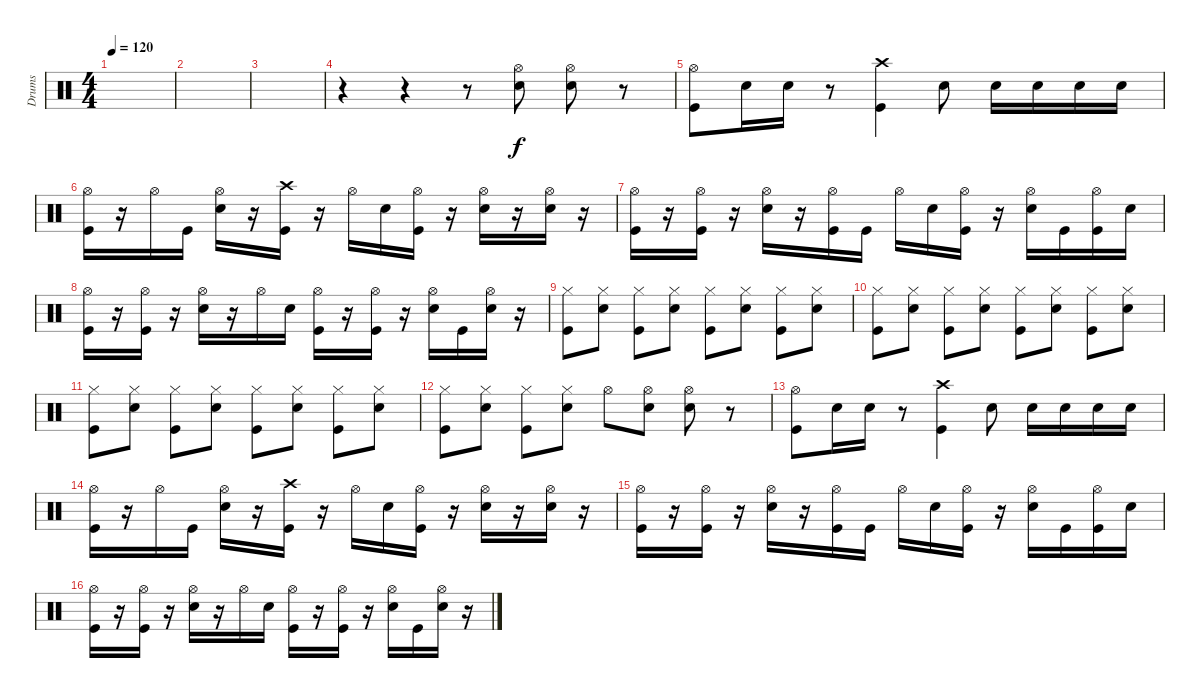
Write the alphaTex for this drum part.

\track ("Drums" "Drums") {instrument percussion}
\staff {score}
\articulation defaults
\ts (4 4)
\tempo 120
\clef neutral
\ks c
|
|
|
r.4 r.4 r.8 ("Hi-Hat (open)" "Electric Snare (hit)").8 ("Hi-Hat (open)" "Electric Snare (hit)").8 r.8 |
("Hi-Hat (open)" "Kick (hit)").8 "Electric Snare (hit)".16 "Electric Snare (hit)".16 r.8 ("Crash high (hit)" "Kick (hit)").4 "Electric Snare (hit)".8 "Electric Snare (hit)".16 "Electric Snare (hit)".16 "Electric Snare (hit)".16 "Electric Snare (hit)".16 |
("Hi-Hat (open)" "Kick (hit)").16 r.16 "Hi-Hat (open)".16 "Kick (hit)".16 ("Hi-Hat (open)" "Electric Snare (hit)").16 r.16 ("Crash high (hit)" "Kick (hit)").16 r.16 "Hi-Hat (open)".16 "Electric Snare (hit)".16 ("Hi-Hat (open)" "Kick (hit)").16 r.16 ("Hi-Hat (open)" "Electric Snare (hit)").16 r.16 ("Hi-Hat (open)" "Electric Snare (hit)").16 r.16 |
("Hi-Hat (open)" "Kick (hit)").16 r.16 ("Hi-Hat (open)" "Kick (hit)").16 r.16 ("Hi-Hat (open)" "Electric Snare (hit)").16 r.16 ("Hi-Hat (open)" "Kick (hit)").16 "Kick (hit)".16 "Hi-Hat (open)".16 "Electric Snare (hit)".16 ("Hi-Hat (open)" "Kick (hit)").16 r.16 ("Hi-Hat (open)" "Electric Snare (hit)").16 "Kick (hit)".16 ("Hi-Hat (open)" "Kick (hit)").16 "Electric Snare (hit)".16 |
("Hi-Hat (open)" "Kick (hit)").16 r.16 ("Hi-Hat (open)" "Kick (hit)").16 r.16 ("Hi-Hat (open)" "Electric Snare (hit)").16 r.16 "Hi-Hat (open)".16 "Electric Snare (hit)".16 ("Hi-Hat (open)" "Kick (hit)").16 r.16 ("Hi-Hat (open)" "Kick (hit)").16 r.16 ("Hi-Hat (open)" "Electric Snare (hit)").16 "Kick (hit)".16 ("Hi-Hat (open)" "Electric Snare (hit)").16 r.16 |
("Hi-Hat (closed)" "Kick (hit)").8 ("Hi-Hat (closed)" "Electric Snare (hit)").8 ("Hi-Hat (closed)" "Kick (hit)").8 ("Hi-Hat (closed)" "Electric Snare (hit)").8 ("Hi-Hat (closed)" "Kick (hit)").8 ("Hi-Hat (closed)" "Electric Snare (hit)").8 ("Hi-Hat (closed)" "Kick (hit)").8 ("Hi-Hat (closed)" "Electric Snare (hit)").8 |
("Hi-Hat (closed)" "Kick (hit)").8 ("Hi-Hat (closed)" "Electric Snare (hit)").8 ("Hi-Hat (closed)" "Kick (hit)").8 ("Hi-Hat (closed)" "Electric Snare (hit)").8 ("Hi-Hat (closed)" "Kick (hit)").8 ("Hi-Hat (closed)" "Electric Snare (hit)").8 ("Hi-Hat (closed)" "Kick (hit)").8 ("Hi-Hat (closed)" "Electric Snare (hit)").8 |
("Hi-Hat (closed)" "Kick (hit)").8 ("Hi-Hat (closed)" "Electric Snare (hit)").8 ("Hi-Hat (closed)" "Kick (hit)").8 ("Hi-Hat (closed)" "Electric Snare (hit)").8 ("Hi-Hat (closed)" "Kick (hit)").8 ("Hi-Hat (closed)" "Electric Snare (hit)").8 ("Hi-Hat (closed)" "Kick (hit)").8 ("Hi-Hat (closed)" "Electric Snare (hit)").8 |
("Hi-Hat (closed)" "Kick (hit)").8 ("Hi-Hat (closed)" "Electric Snare (hit)").8 ("Hi-Hat (closed)" "Kick (hit)").8 ("Hi-Hat (closed)" "Electric Snare (hit)").8 "Hi-Hat (open)".8 ("Hi-Hat (open)" "Electric Snare (hit)").8 ("Hi-Hat (open)" "Electric Snare (hit)").8 r.8 |
("Hi-Hat (open)" "Kick (hit)").8 "Electric Snare (hit)".16 "Electric Snare (hit)".16 r.8 ("Crash high (hit)" "Kick (hit)").4 "Electric Snare (hit)".8 "Electric Snare (hit)".16 "Electric Snare (hit)".16 "Electric Snare (hit)".16 "Electric Snare (hit)".16 |
("Hi-Hat (open)" "Kick (hit)").16 r.16 "Hi-Hat (open)".16 "Kick (hit)".16 ("Hi-Hat (open)" "Electric Snare (hit)").16 r.16 ("Crash high (hit)" "Kick (hit)").16 r.16 "Hi-Hat (open)".16 "Electric Snare (hit)".16 ("Hi-Hat (open)" "Kick (hit)").16 r.16 ("Hi-Hat (open)" "Electric Snare (hit)").16 r.16 ("Hi-Hat (open)" "Electric Snare (hit)").16 r.16 |
("Hi-Hat (open)" "Kick (hit)").16 r.16 ("Hi-Hat (open)" "Kick (hit)").16 r.16 ("Hi-Hat (open)" "Electric Snare (hit)").16 r.16 ("Hi-Hat (open)" "Kick (hit)").16 "Kick (hit)".16 "Hi-Hat (open)".16 "Electric Snare (hit)".16 ("Hi-Hat (open)" "Kick (hit)").16 r.16 ("Hi-Hat (open)" "Electric Snare (hit)").16 "Kick (hit)".16 ("Hi-Hat (open)" "Kick (hit)").16 "Electric Snare (hit)".16 |
("Hi-Hat (open)" "Kick (hit)").16 r.16 ("Hi-Hat (open)" "Kick (hit)").16 r.16 ("Hi-Hat (open)" "Electric Snare (hit)").16 r.16 "Hi-Hat (open)".16 "Electric Snare (hit)".16 ("Hi-Hat (open)" "Kick (hit)").16 r.16 ("Hi-Hat (open)" "Kick (hit)").16 r.16 ("Hi-Hat (open)" "Electric Snare (hit)").16 "Kick (hit)".16 ("Hi-Hat (open)" "Electric Snare (hit)").16 r.16
